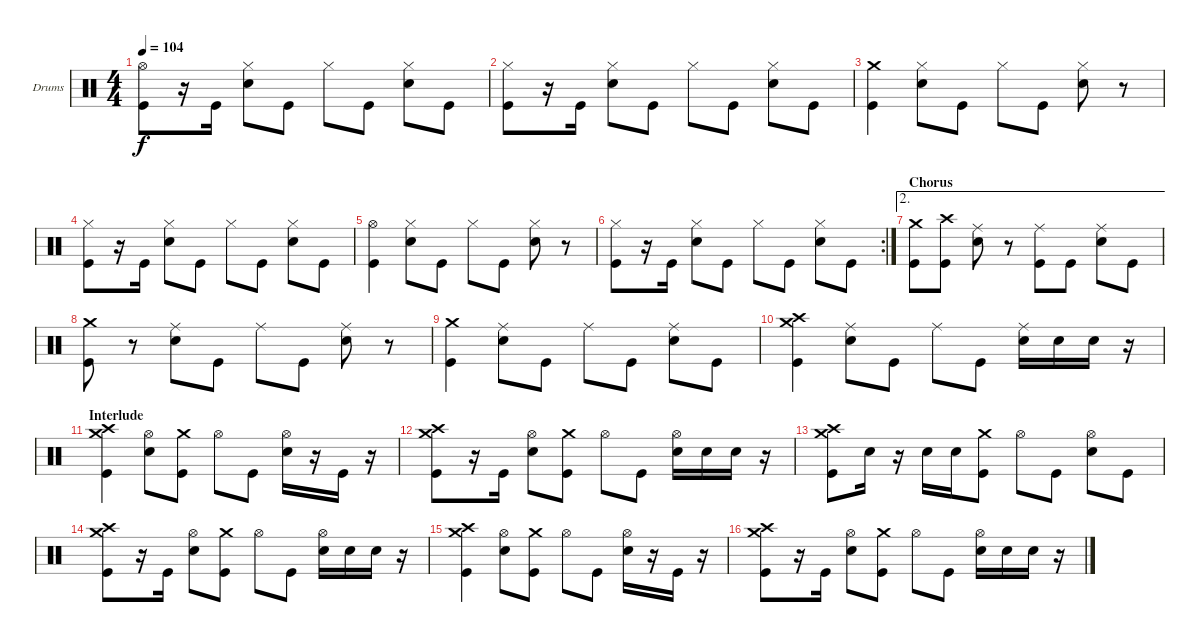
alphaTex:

\defaultSystemsLayout 4
\bracketExtendMode nobrackets
\firstSystemTrackNameOrientation horizontal
\otherSystemsTrackNameOrientation horizontal
\track ("Dave Krusen" "Drums") {instrument percussion}
\staff {score}
\articulation defaults
\ts (4 4)
\tempo 104
\clef neutral
\ks c
("Kick (hit)" "Hi-Hat (open)").8{dy f} r.16 "Kick (hit)".16 ("Snare (hit) 2" "Hi-Hat (closed)").8 "Kick (hit)".8 "Hi-Hat (closed)".8 "Kick (hit)".8 ("Snare (hit) 2" "Hi-Hat (closed)").8 "Kick (hit)".8 |
("Kick (hit)" "Hi-Hat (closed)").8 r.16 "Kick (hit)".16 ("Snare (hit) 2" "Hi-Hat (closed)").8 "Kick (hit)".8 "Hi-Hat (closed)".8 "Kick (hit)".8 ("Snare (hit) 2" "Hi-Hat (closed)").8 "Kick (hit)".8 |
("Kick (hit)" "Crash medium (hit)").4 ("Snare (hit) 2" "Hi-Hat (closed)").8 "Kick (hit)".8 "Hi-Hat (closed)".8 "Kick (hit)".8 ("Snare (hit) 2" "Hi-Hat (closed)").8 r.8 |
("Kick (hit)" "Hi-Hat (closed)").8 r.16 "Kick (hit)".16 ("Snare (hit) 2" "Hi-Hat (closed)").8 "Kick (hit)".8 "Hi-Hat (closed)".8 "Kick (hit)".8 ("Snare (hit) 2" "Hi-Hat (closed)").8 "Kick (hit)".8 |
("Kick (hit)" "Hi-Hat (open)").4 ("Snare (hit) 2" "Hi-Hat (closed)").8 "Kick (hit)".8 "Hi-Hat (closed)".8 "Kick (hit)".8 ("Snare (hit) 2" "Hi-Hat (closed)").8 r.8 |
\rc 2
("Kick (hit)" "Hi-Hat (closed)").8 r.16 "Kick (hit)".16 ("Snare (hit) 2" "Hi-Hat (closed)").8 "Kick (hit)".8 "Hi-Hat (closed)".8 "Kick (hit)".8 ("Snare (hit) 2" "Hi-Hat (closed)").8 "Kick (hit)".8 |
\ae 2
\section ("" "Chorus")
("Crash medium (hit)" "Kick (hit)").8 ("Crash high (hit)" "Kick (hit)").8 ("Ride (middle)" "Snare (hit) 2").8 r.8 ("Ride (middle)" "Kick (hit)").8 "Kick (hit)".8 ("Ride (middle)" "Snare (hit) 2").8 "Kick (hit)".8 |
("Crash medium (hit)" "Kick (hit)").8 r.8 ("Ride (middle)" "Snare (hit) 2").8 "Kick (hit)".8 "Ride (middle)".8 "Kick (hit)".8 ("Ride (middle)" "Snare (hit) 2").8 r.8 |
("Kick (hit)" "Crash medium (hit)").4 ("Snare (hit) 2" "Ride (middle)").8 "Kick (hit)".8 "Ride (middle)".8 "Kick (hit)".8 ("Snare (hit) 2" "Ride (middle)").8 "Kick (hit)".8 |
("Crash high (hit)" "Kick (hit)" "Crash medium (hit)").4 ("Snare (hit) 2" "Ride (middle)").8 "Kick (hit)".8 "Ride (middle)".8 "Kick (hit)".8 ("Snare (hit) 2" "Ride (middle)").16 "Snare (hit) 2".16 "Snare (hit) 2".16 r.16 |
\section ("" "Interlude")
("Crash high (hit)" "Kick (hit)" "Crash medium (hit)").4 ("Snare (hit) 2" "Hi-Hat (open)").8 ("Crash medium (hit)" "Kick (hit)").8 "Hi-Hat (open)".8 "Kick (hit)".8 ("Snare (hit) 2" "Hi-Hat (open)").16 r.16 "Kick (hit)".16 r.16 |
("Crash medium (hit)" "Kick (hit)" "Crash high (hit)").8 r.16 "Kick (hit)".16 ("Snare (hit) 2" "Hi-Hat (open)").8 ("Crash medium (hit)" "Kick (hit)").8 "Hi-Hat (open)".8 "Kick (hit)".8 ("Snare (hit) 2" "Hi-Hat (open)").16 "Snare (hit) 2".16 "Snare (hit) 2".16 r.16 |
("Crash high (hit)" "Kick (hit)" "Crash medium (hit)").8 "Snare (hit) 2".16 r.16 "Snare (hit) 2".16 "Snare (hit) 2".16 ("Crash medium (hit)" "Kick (hit)").8 "Hi-Hat (open)".8 "Kick (hit)".8 ("Snare (hit) 2" "Hi-Hat (open)").8 "Kick (hit)".8 |
("Crash medium (hit)" "Kick (hit)" "Crash high (hit)").8 r.16 "Kick (hit)".16 ("Snare (hit) 2" "Hi-Hat (open)").8 ("Crash medium (hit)" "Kick (hit)").8 "Hi-Hat (open)".8 "Kick (hit)".8 ("Snare (hit) 2" "Hi-Hat (open)").16 "Snare (hit) 2".16 "Snare (hit) 2".16 r.16 |
("Crash high (hit)" "Kick (hit)" "Crash medium (hit)").4 ("Snare (hit) 2" "Hi-Hat (open)").8 ("Crash medium (hit)" "Kick (hit)").8 "Hi-Hat (open)".8 "Kick (hit)".8 ("Snare (hit) 2" "Hi-Hat (open)").16 r.16 "Kick (hit)".16 r.16 |
("Crash medium (hit)" "Kick (hit)" "Crash high (hit)").8 r.16 "Kick (hit)".16 ("Snare (hit) 2" "Hi-Hat (open)").8 ("Crash medium (hit)" "Kick (hit)").8 "Hi-Hat (open)".8 "Kick (hit)".8 ("Snare (hit) 2" "Hi-Hat (open)").16 "Snare (hit) 2".16 "Snare (hit) 2".16 r.16
